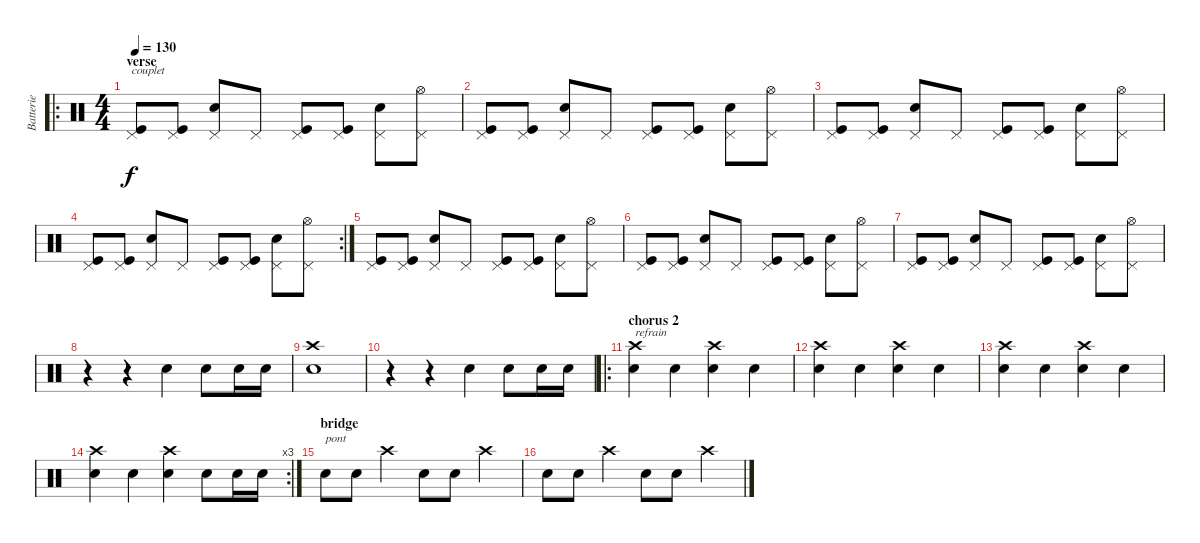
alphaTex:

\track ("Batterie" "Batterie") {instrument percussion}
\staff {score}
\articulation defaults
\ro
\ts (4 4)
\section ("" "verse")
\tempo 130
\clef neutral
\ks c
("Pedal Hi-Hat (hit)" "Kick (hit)").8{txt "couplet" dy f} ("Pedal Hi-Hat (hit)" "Kick (hit)").8 ("Pedal Hi-Hat (hit)" "Snare (hit) 2").8 "Pedal Hi-Hat (hit)".8 ("Pedal Hi-Hat (hit)" "Kick (hit)").8 ("Pedal Hi-Hat (hit)" "Kick (hit)").8 ("Pedal Hi-Hat (hit)" "Snare (hit) 2").8 ("Pedal Hi-Hat (hit)" "Hi-Hat (open)").8 |
("Pedal Hi-Hat (hit)" "Kick (hit)").8 ("Pedal Hi-Hat (hit)" "Kick (hit)").8 ("Pedal Hi-Hat (hit)" "Snare (hit) 2").8 "Pedal Hi-Hat (hit)".8 ("Pedal Hi-Hat (hit)" "Kick (hit)").8 ("Pedal Hi-Hat (hit)" "Kick (hit)").8 ("Pedal Hi-Hat (hit)" "Snare (hit) 2").8 ("Pedal Hi-Hat (hit)" "Hi-Hat (open)").8 |
("Pedal Hi-Hat (hit)" "Kick (hit)").8 ("Pedal Hi-Hat (hit)" "Kick (hit)").8 ("Pedal Hi-Hat (hit)" "Snare (hit) 2").8 "Pedal Hi-Hat (hit)".8 ("Pedal Hi-Hat (hit)" "Kick (hit)").8 ("Pedal Hi-Hat (hit)" "Kick (hit)").8 ("Pedal Hi-Hat (hit)" "Snare (hit) 2").8 ("Pedal Hi-Hat (hit)" "Hi-Hat (open)").8 |
\rc 2
("Pedal Hi-Hat (hit)" "Kick (hit)").8 ("Pedal Hi-Hat (hit)" "Kick (hit)").8 ("Pedal Hi-Hat (hit)" "Snare (hit) 2").8 "Pedal Hi-Hat (hit)".8 ("Pedal Hi-Hat (hit)" "Kick (hit)").8 ("Pedal Hi-Hat (hit)" "Kick (hit)").8 ("Pedal Hi-Hat (hit)" "Snare (hit) 2").8 ("Pedal Hi-Hat (hit)" "Hi-Hat (open)").8 |
("Pedal Hi-Hat (hit)" "Kick (hit)").8 ("Pedal Hi-Hat (hit)" "Kick (hit)").8 ("Pedal Hi-Hat (hit)" "Snare (hit) 2").8 "Pedal Hi-Hat (hit)".8 ("Pedal Hi-Hat (hit)" "Kick (hit)").8 ("Pedal Hi-Hat (hit)" "Kick (hit)").8 ("Pedal Hi-Hat (hit)" "Snare (hit) 2").8 ("Pedal Hi-Hat (hit)" "Hi-Hat (open)").8 |
("Pedal Hi-Hat (hit)" "Kick (hit)").8 ("Pedal Hi-Hat (hit)" "Kick (hit)").8 ("Pedal Hi-Hat (hit)" "Snare (hit) 2").8 "Pedal Hi-Hat (hit)".8 ("Pedal Hi-Hat (hit)" "Kick (hit)").8 ("Pedal Hi-Hat (hit)" "Kick (hit)").8 ("Pedal Hi-Hat (hit)" "Snare (hit) 2").8 ("Pedal Hi-Hat (hit)" "Hi-Hat (open)").8 |
("Pedal Hi-Hat (hit)" "Kick (hit)").8 ("Pedal Hi-Hat (hit)" "Kick (hit)").8 ("Pedal Hi-Hat (hit)" "Snare (hit) 2").8 "Pedal Hi-Hat (hit)".8 ("Pedal Hi-Hat (hit)" "Kick (hit)").8 ("Pedal Hi-Hat (hit)" "Kick (hit)").8 ("Pedal Hi-Hat (hit)" "Snare (hit) 2").8 ("Pedal Hi-Hat (hit)" "Hi-Hat (open)").8 |
r.4 r.4 "Snare (hit) 2".4 "Snare (hit) 2".8 "Snare (hit) 2".16 "Snare (hit) 2".16 |
("Crash high (hit)" "Electric Snare (hit)").1 |
r.4 r.4 "Snare (hit) 2".4 "Snare (hit) 2".8 "Snare (hit) 2".16 "Snare (hit) 2".16 |
\ro
\section ("" "chorus 2")
("Crash high (hit)" "Electric Snare (hit)").4{txt "refrain"} "Electric Snare (hit)".4 ("Crash high (hit)" "Electric Snare (hit)").4 "Electric Snare (hit)".4 |
("Crash high (hit)" "Electric Snare (hit)").4 "Electric Snare (hit)".4 ("Crash high (hit)" "Electric Snare (hit)").4 "Electric Snare (hit)".4 |
("Crash high (hit)" "Electric Snare (hit)").4 "Electric Snare (hit)".4 ("Crash high (hit)" "Electric Snare (hit)").4 "Electric Snare (hit)".4 |
\rc 3
("Crash high (hit)" "Electric Snare (hit)").4 "Electric Snare (hit)".4 ("Crash high (hit)" "Electric Snare (hit)").4 "Electric Snare (hit)".8 "Electric Snare (hit)".16 "Electric Snare (hit)".16 |
\section ("" "bridge")
"Snare (hit) 2".8{txt "pont"} "Snare (hit) 2".8 "Crash high (hit)".4 "Snare (hit) 2".8 "Snare (hit) 2".8 "Crash high (hit)".4 |
"Snare (hit) 2".8 "Snare (hit) 2".8 "Crash high (hit)".4 "Snare (hit) 2".8 "Snare (hit) 2".8 "Crash high (hit)".4
